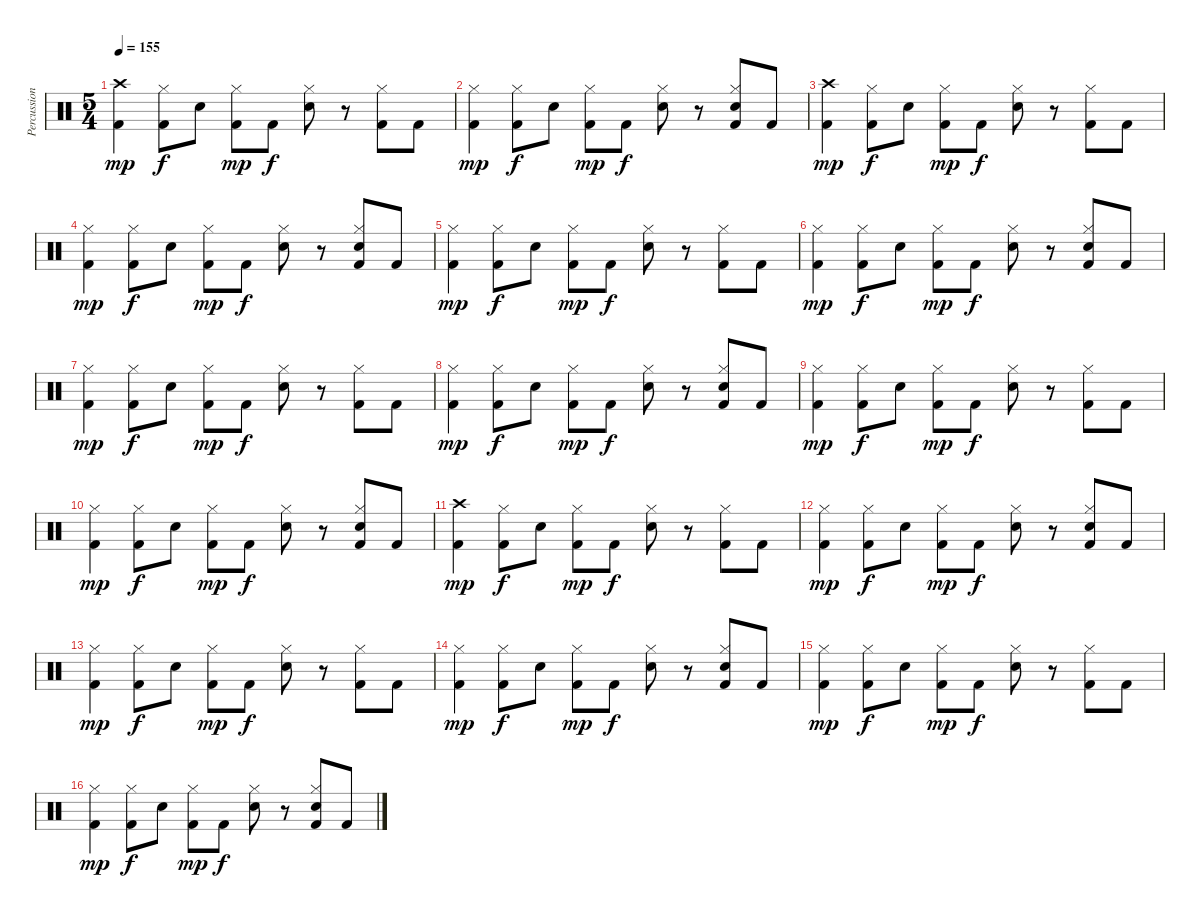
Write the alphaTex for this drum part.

\track ("Percussion" "Percussion") {instrument percussion}
\staff {score}
\articulation defaults
\ts (5 4)
\tempo 155
\clef neutral
\ks c
("Crash high (hit)" "Kick (hit) 2").4{dy mp} ("Hi-Hat (closed)" "Kick (hit) 2").8{dy f} "Snare (hit) 2".8 ("Hi-Hat (closed)" "Kick (hit) 2").8{dy mp} "Kick (hit) 2".8{dy f} ("Hi-Hat (closed)" "Snare (hit) 2").8 r.8 ("Hi-Hat (closed)" "Kick (hit) 2").8 "Kick (hit) 2".8 |
("Hi-Hat (closed)" "Kick (hit) 2").4{dy mp} ("Hi-Hat (closed)" "Kick (hit) 2").8{dy f} "Snare (hit) 2".8 ("Hi-Hat (closed)" "Kick (hit) 2").8{dy mp} "Kick (hit) 2".8{dy f} ("Hi-Hat (closed)" "Snare (hit) 2").8 r.8 ("Hi-Hat (closed)" "Snare (hit) 2" "Kick (hit) 2").8 "Kick (hit) 2".8 |
("Crash high (hit)" "Kick (hit) 2").4{dy mp} ("Hi-Hat (closed)" "Kick (hit) 2").8{dy f} "Snare (hit) 2".8 ("Hi-Hat (closed)" "Kick (hit) 2").8{dy mp} "Kick (hit) 2".8{dy f} ("Hi-Hat (closed)" "Snare (hit) 2").8 r.8 ("Hi-Hat (closed)" "Kick (hit) 2").8 "Kick (hit) 2".8 |
("Hi-Hat (closed)" "Kick (hit) 2").4{dy mp} ("Hi-Hat (closed)" "Kick (hit) 2").8{dy f} "Snare (hit) 2".8 ("Hi-Hat (closed)" "Kick (hit) 2").8{dy mp} "Kick (hit) 2".8{dy f} ("Hi-Hat (closed)" "Snare (hit) 2").8 r.8 ("Hi-Hat (closed)" "Snare (hit) 2" "Kick (hit) 2").8 "Kick (hit) 2".8 |
("Hi-Hat (closed)" "Kick (hit) 2").4{dy mp} ("Hi-Hat (closed)" "Kick (hit) 2").8{dy f} "Snare (hit) 2".8 ("Hi-Hat (closed)" "Kick (hit) 2").8{dy mp} "Kick (hit) 2".8{dy f} ("Hi-Hat (closed)" "Snare (hit) 2").8 r.8 ("Hi-Hat (closed)" "Kick (hit) 2").8 "Kick (hit) 2".8 |
("Hi-Hat (closed)" "Kick (hit) 2").4{dy mp} ("Hi-Hat (closed)" "Kick (hit) 2").8{dy f} "Snare (hit) 2".8 ("Hi-Hat (closed)" "Kick (hit) 2").8{dy mp} "Kick (hit) 2".8{dy f} ("Hi-Hat (closed)" "Snare (hit) 2").8 r.8 ("Hi-Hat (closed)" "Snare (hit) 2" "Kick (hit) 2").8 "Kick (hit) 2".8 |
("Hi-Hat (closed)" "Kick (hit) 2").4{dy mp} ("Hi-Hat (closed)" "Kick (hit) 2").8{dy f} "Snare (hit) 2".8 ("Hi-Hat (closed)" "Kick (hit) 2").8{dy mp} "Kick (hit) 2".8{dy f} ("Hi-Hat (closed)" "Snare (hit) 2").8 r.8 ("Hi-Hat (closed)" "Kick (hit) 2").8 "Kick (hit) 2".8 |
("Hi-Hat (closed)" "Kick (hit) 2").4{dy mp} ("Hi-Hat (closed)" "Kick (hit) 2").8{dy f} "Snare (hit) 2".8 ("Hi-Hat (closed)" "Kick (hit) 2").8{dy mp} "Kick (hit) 2".8{dy f} ("Hi-Hat (closed)" "Snare (hit) 2").8 r.8 ("Hi-Hat (closed)" "Snare (hit) 2" "Kick (hit) 2").8 "Kick (hit) 2".8 |
("Hi-Hat (closed)" "Kick (hit) 2").4{dy mp} ("Hi-Hat (closed)" "Kick (hit) 2").8{dy f} "Snare (hit) 2".8 ("Hi-Hat (closed)" "Kick (hit) 2").8{dy mp} "Kick (hit) 2".8{dy f} ("Hi-Hat (closed)" "Snare (hit) 2").8 r.8 ("Hi-Hat (closed)" "Kick (hit) 2").8 "Kick (hit) 2".8 |
("Hi-Hat (closed)" "Kick (hit) 2").4{dy mp} ("Hi-Hat (closed)" "Kick (hit) 2").8{dy f} "Snare (hit) 2".8 ("Hi-Hat (closed)" "Kick (hit) 2").8{dy mp} "Kick (hit) 2".8{dy f} ("Hi-Hat (closed)" "Snare (hit) 2").8 r.8 ("Hi-Hat (closed)" "Snare (hit) 2" "Kick (hit) 2").8 "Kick (hit) 2".8 |
("Crash high (hit)" "Kick (hit) 2").4{dy mp} ("Hi-Hat (closed)" "Kick (hit) 2").8{dy f} "Snare (hit) 2".8 ("Hi-Hat (closed)" "Kick (hit) 2").8{dy mp} "Kick (hit) 2".8{dy f} ("Hi-Hat (closed)" "Snare (hit) 2").8 r.8 ("Hi-Hat (closed)" "Kick (hit) 2").8 "Kick (hit) 2".8 |
("Hi-Hat (closed)" "Kick (hit) 2").4{dy mp} ("Hi-Hat (closed)" "Kick (hit) 2").8{dy f} "Snare (hit) 2".8 ("Hi-Hat (closed)" "Kick (hit) 2").8{dy mp} "Kick (hit) 2".8{dy f} ("Hi-Hat (closed)" "Snare (hit) 2").8 r.8 ("Hi-Hat (closed)" "Snare (hit) 2" "Kick (hit) 2").8 "Kick (hit) 2".8 |
("Hi-Hat (closed)" "Kick (hit) 2").4{dy mp} ("Hi-Hat (closed)" "Kick (hit) 2").8{dy f} "Snare (hit) 2".8 ("Hi-Hat (closed)" "Kick (hit) 2").8{dy mp} "Kick (hit) 2".8{dy f} ("Hi-Hat (closed)" "Snare (hit) 2").8 r.8 ("Hi-Hat (closed)" "Kick (hit) 2").8 "Kick (hit) 2".8 |
("Hi-Hat (closed)" "Kick (hit) 2").4{dy mp} ("Hi-Hat (closed)" "Kick (hit) 2").8{dy f} "Snare (hit) 2".8 ("Hi-Hat (closed)" "Kick (hit) 2").8{dy mp} "Kick (hit) 2".8{dy f} ("Hi-Hat (closed)" "Snare (hit) 2").8 r.8 ("Hi-Hat (closed)" "Snare (hit) 2" "Kick (hit) 2").8 "Kick (hit) 2".8 |
("Hi-Hat (closed)" "Kick (hit) 2").4{dy mp} ("Hi-Hat (closed)" "Kick (hit) 2").8{dy f} "Snare (hit) 2".8 ("Hi-Hat (closed)" "Kick (hit) 2").8{dy mp} "Kick (hit) 2".8{dy f} ("Hi-Hat (closed)" "Snare (hit) 2").8 r.8 ("Hi-Hat (closed)" "Kick (hit) 2").8 "Kick (hit) 2".8 |
("Hi-Hat (closed)" "Kick (hit) 2").4{dy mp} ("Hi-Hat (closed)" "Kick (hit) 2").8{dy f} "Snare (hit) 2".8 ("Hi-Hat (closed)" "Kick (hit) 2").8{dy mp} "Kick (hit) 2".8{dy f} ("Hi-Hat (closed)" "Snare (hit) 2").8 r.8 ("Hi-Hat (closed)" "Snare (hit) 2" "Kick (hit) 2").8 "Kick (hit) 2".8
